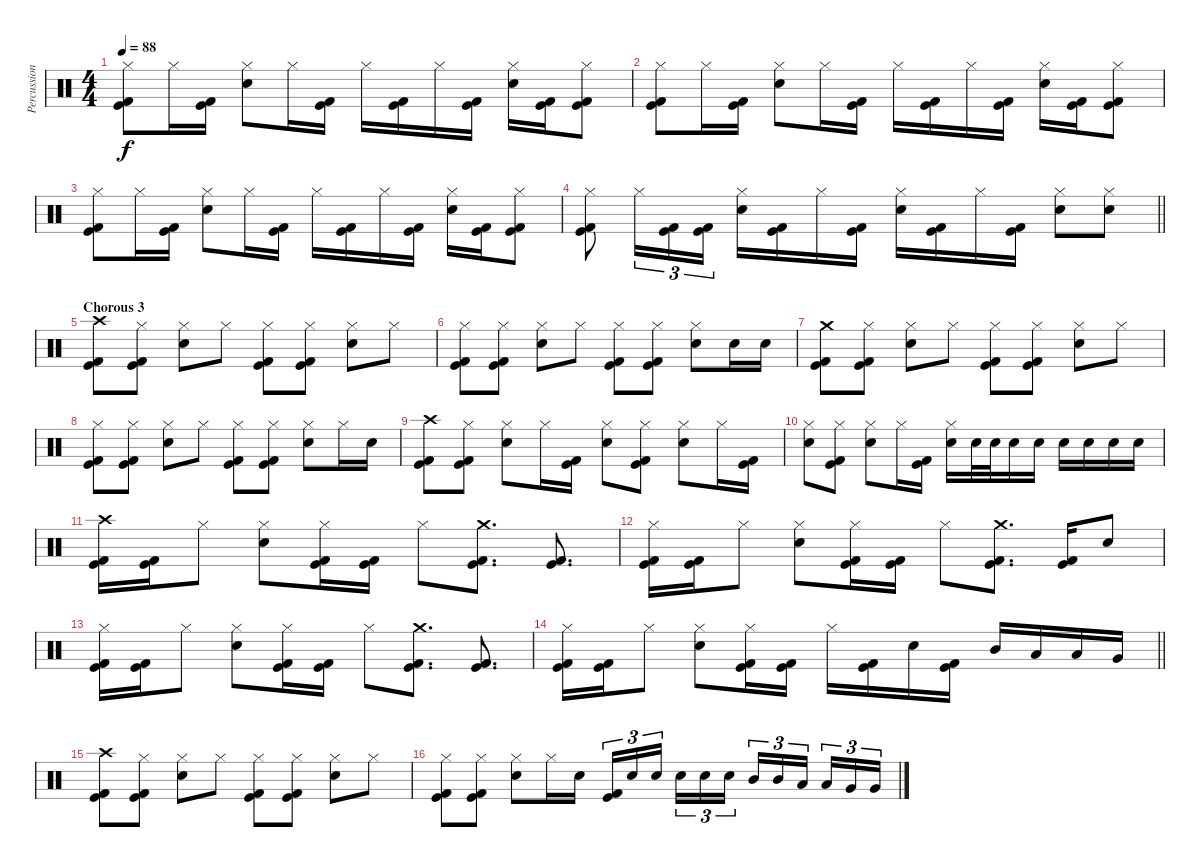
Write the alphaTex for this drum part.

\track ("Percussion" "Percussion") {instrument percussion}
\staff {score}
\articulation defaults
\ts (4 4)
\tempo 88
\clef neutral
\ks c
("Hi-Hat (closed)" "Kick (hit)" "Kick (hit) 2").8{dy f} "Hi-Hat (closed)".16 ("Kick (hit)" "Kick (hit) 2").16 ("Hi-Hat (closed)" "Electric Snare (hit)").8 "Hi-Hat (closed)".16 ("Kick (hit)" "Kick (hit) 2").16 "Hi-Hat (closed)".16 ("Kick (hit)" "Kick (hit) 2").16 "Hi-Hat (closed)".16 ("Kick (hit)" "Kick (hit) 2").16 ("Hi-Hat (closed)" "Electric Snare (hit)").16 ("Kick (hit)" "Kick (hit) 2").16 ("Hi-Hat (closed)" "Kick (hit)" "Kick (hit) 2").8 |
("Hi-Hat (closed)" "Kick (hit)" "Kick (hit) 2").8 "Hi-Hat (closed)".16 ("Kick (hit)" "Kick (hit) 2").16 ("Hi-Hat (closed)" "Electric Snare (hit)").8 "Hi-Hat (closed)".16 ("Kick (hit)" "Kick (hit) 2").16 "Hi-Hat (closed)".16 ("Kick (hit)" "Kick (hit) 2").16 "Hi-Hat (closed)".16 ("Kick (hit)" "Kick (hit) 2").16 ("Hi-Hat (closed)" "Electric Snare (hit)").16 ("Kick (hit)" "Kick (hit) 2").16 ("Hi-Hat (closed)" "Kick (hit)" "Kick (hit) 2").8 |
("Hi-Hat (closed)" "Kick (hit)" "Kick (hit) 2").8 "Hi-Hat (closed)".16 ("Kick (hit)" "Kick (hit) 2").16 ("Hi-Hat (closed)" "Electric Snare (hit)").8 "Hi-Hat (closed)".16 ("Kick (hit)" "Kick (hit) 2").16 "Hi-Hat (closed)".16 ("Kick (hit)" "Kick (hit) 2").16 "Hi-Hat (closed)".16 ("Kick (hit)" "Kick (hit) 2").16 ("Hi-Hat (closed)" "Electric Snare (hit)").16 ("Kick (hit)" "Kick (hit) 2").16 ("Hi-Hat (closed)" "Kick (hit)" "Kick (hit) 2").8 |
\barLineRight lightlight
("Hi-Hat (closed)" "Kick (hit)" "Kick (hit) 2").8 "Hi-Hat (closed)".16{tu (3 2)} ("Kick (hit)" "Kick (hit) 2").16{tu (3 2)} ("Kick (hit)" "Kick (hit) 2").16{tu (3 2)} ("Hi-Hat (closed)" "Electric Snare (hit)").16 ("Kick (hit)" "Kick (hit) 2").16 "Hi-Hat (closed)".16 ("Kick (hit)" "Kick (hit) 2").16 ("Hi-Hat (closed)" "Electric Snare (hit)").16 ("Kick (hit)" "Kick (hit) 2").16 "Hi-Hat (closed)".16 ("Kick (hit)" "Kick (hit) 2").16 ("Hi-Hat (closed)" "Electric Snare (hit)").8 ("Hi-Hat (closed)" "Electric Snare (hit)").8 |
\section ("" "Chorous 3")
("Crash high (hit)" "Kick (hit)" "Kick (hit) 2").8 ("Hi-Hat (closed)" "Kick (hit)" "Kick (hit) 2").8 ("Hi-Hat (closed)" "Electric Snare (hit)").8 "Hi-Hat (closed)".8 ("Hi-Hat (closed)" "Kick (hit)" "Kick (hit) 2").8 ("Hi-Hat (closed)" "Kick (hit)" "Kick (hit) 2").8 ("Hi-Hat (closed)" "Electric Snare (hit)").8 "Hi-Hat (closed)".8 |
("Hi-Hat (closed)" "Kick (hit)" "Kick (hit) 2").8 ("Hi-Hat (closed)" "Kick (hit)" "Kick (hit) 2").8 ("Hi-Hat (closed)" "Electric Snare (hit)").8 "Hi-Hat (closed)".8 ("Hi-Hat (closed)" "Kick (hit)" "Kick (hit) 2").8 ("Hi-Hat (closed)" "Kick (hit)" "Kick (hit) 2").8 ("Hi-Hat (closed)" "Electric Snare (hit)").8 "Electric Snare (hit)".16 "Electric Snare (hit)".16 |
("Crash medium (hit)" "Kick (hit)" "Kick (hit) 2").8 ("Hi-Hat (closed)" "Kick (hit)" "Kick (hit) 2").8 ("Hi-Hat (closed)" "Electric Snare (hit)").8 "Hi-Hat (closed)".8 ("Hi-Hat (closed)" "Kick (hit)" "Kick (hit) 2").8 ("Hi-Hat (closed)" "Kick (hit)" "Kick (hit) 2").8 ("Hi-Hat (closed)" "Electric Snare (hit)").8 "Hi-Hat (closed)".8 |
("Hi-Hat (closed)" "Kick (hit)" "Kick (hit) 2").8 ("Hi-Hat (closed)" "Kick (hit)" "Kick (hit) 2").8 ("Hi-Hat (closed)" "Electric Snare (hit)").8 "Hi-Hat (closed)".8 ("Hi-Hat (closed)" "Kick (hit)" "Kick (hit) 2").8 ("Hi-Hat (closed)" "Kick (hit)" "Kick (hit) 2").8 ("Hi-Hat (closed)" "Electric Snare (hit)").8 "Hi-Hat (closed)".16 "Electric Snare (hit)".16 |
("Crash high (hit)" "Kick (hit)" "Kick (hit) 2").8 ("Hi-Hat (closed)" "Kick (hit)" "Kick (hit) 2").8 ("Hi-Hat (closed)" "Electric Snare (hit)").8 "Hi-Hat (closed)".16 ("Kick (hit)" "Kick (hit) 2").16 ("Hi-Hat (closed)" "Electric Snare (hit)").8 ("Hi-Hat (closed)" "Kick (hit)" "Kick (hit) 2").8 ("Hi-Hat (closed)" "Electric Snare (hit)").8 "Hi-Hat (closed)".16 ("Kick (hit)" "Kick (hit) 2").16 |
("Hi-Hat (closed)" "Electric Snare (hit)").8 ("Hi-Hat (closed)" "Kick (hit)" "Kick (hit) 2").8 ("Hi-Hat (closed)" "Electric Snare (hit)").8 "Hi-Hat (closed)".16 ("Kick (hit)" "Kick (hit) 2").16 ("Hi-Hat (closed)" "Electric Snare (hit)").16 "Electric Snare (hit)".32 "Electric Snare (hit)".32 "Electric Snare (hit)".16 "Electric Snare (hit)".16 "Electric Snare (hit)".16 "Electric Snare (hit)".16 "Electric Snare (hit)".16 "Electric Snare (hit)".16 |
("Crash high (hit)" "Kick (hit)" "Kick (hit) 2").16 ("Kick (hit)" "Kick (hit) 2").16 "Hi-Hat (closed)".8 ("Hi-Hat (closed)" "Electric Snare (hit)").8 ("Hi-Hat (closed)" "Kick (hit)" "Kick (hit) 2").16 ("Kick (hit)" "Kick (hit) 2").16 "Hi-Hat (closed)".8 ("Crash medium (hit)" "Kick (hit)" "Kick (hit) 2").8{d} ("Kick (hit)" "Kick (hit) 2").8{d} |
("Hi-Hat (closed)" "Kick (hit)" "Kick (hit) 2").16 ("Kick (hit)" "Kick (hit) 2").16 "Hi-Hat (closed)".8 ("Hi-Hat (closed)" "Electric Snare (hit)").8 ("Hi-Hat (closed)" "Kick (hit)" "Kick (hit) 2").16 ("Kick (hit)" "Kick (hit) 2").16 "Hi-Hat (closed)".8 ("Crash medium (hit)" "Kick (hit)" "Kick (hit) 2").8{d} ("Kick (hit)" "Kick (hit) 2").16 "Electric Snare (hit)".8 |
("Hi-Hat (closed)" "Kick (hit)" "Kick (hit) 2").16 ("Kick (hit)" "Kick (hit) 2").16 "Hi-Hat (closed)".8 ("Hi-Hat (closed)" "Electric Snare (hit)").8 ("Hi-Hat (closed)" "Kick (hit)" "Kick (hit) 2").16 ("Kick (hit)" "Kick (hit) 2").16 "Hi-Hat (closed)".8 ("Crash medium (hit)" "Kick (hit)" "Kick (hit) 2").8{d} ("Kick (hit)" "Kick (hit) 2").8{d} |
\barLineRight lightlight
("Hi-Hat (closed)" "Kick (hit)" "Kick (hit) 2").16 ("Kick (hit)" "Kick (hit) 2").16 "Hi-Hat (closed)".8 ("Hi-Hat (closed)" "Electric Snare (hit)").8 ("Hi-Hat (closed)" "Kick (hit)" "Kick (hit) 2").16 ("Kick (hit)" "Kick (hit) 2").16 "Hi-Hat (closed)".16 ("Kick (hit)" "Kick (hit) 2").16 "Electric Snare (hit)".16 ("Kick (hit)" "Kick (hit) 2").16 "Mid Tom (hit)".16 "Low Tom (hit)".16 "Low Tom (hit)".16 "Very Low Tom (hit)".16 |
\section ("" "")
("Crash high (hit)" "Kick (hit)" "Kick (hit) 2").8 ("Hi-Hat (closed)" "Kick (hit)" "Kick (hit) 2").8 ("Hi-Hat (closed)" "Electric Snare (hit)").8 "Hi-Hat (closed)".8 ("Hi-Hat (closed)" "Kick (hit)" "Kick (hit) 2").8 ("Hi-Hat (closed)" "Kick (hit)" "Kick (hit) 2").8 ("Hi-Hat (closed)" "Electric Snare (hit)").8 "Hi-Hat (closed)".8 |
("Hi-Hat (closed)" "Kick (hit)" "Kick (hit) 2").8 ("Hi-Hat (closed)" "Kick (hit)" "Kick (hit) 2").8 ("Hi-Hat (closed)" "Electric Snare (hit)").8 "Hi-Hat (closed)".16 "Electric Snare (hit)".16 ("Kick (hit)" "Kick (hit) 2").16{tu (3 2)} "Electric Snare (hit)".16{tu (3 2)} "Electric Snare (hit)".16{tu (3 2) beam splitsecondary} "Electric Snare (hit)".16{tu (3 2)} "Electric Snare (hit)".16{tu (3 2)} "Electric Snare (hit)".16{tu (3 2)} "Mid Tom (hit)".16{tu (3 2)} "Mid Tom (hit)".16{tu (3 2)} "Low Tom (hit)".16{tu (3 2) beam splitsecondary} "Low Tom (hit)".16{tu (3 2)} "Very Low Tom (hit)".16{tu (3 2)} "Very Low Tom (hit)".16{tu (3 2)}
